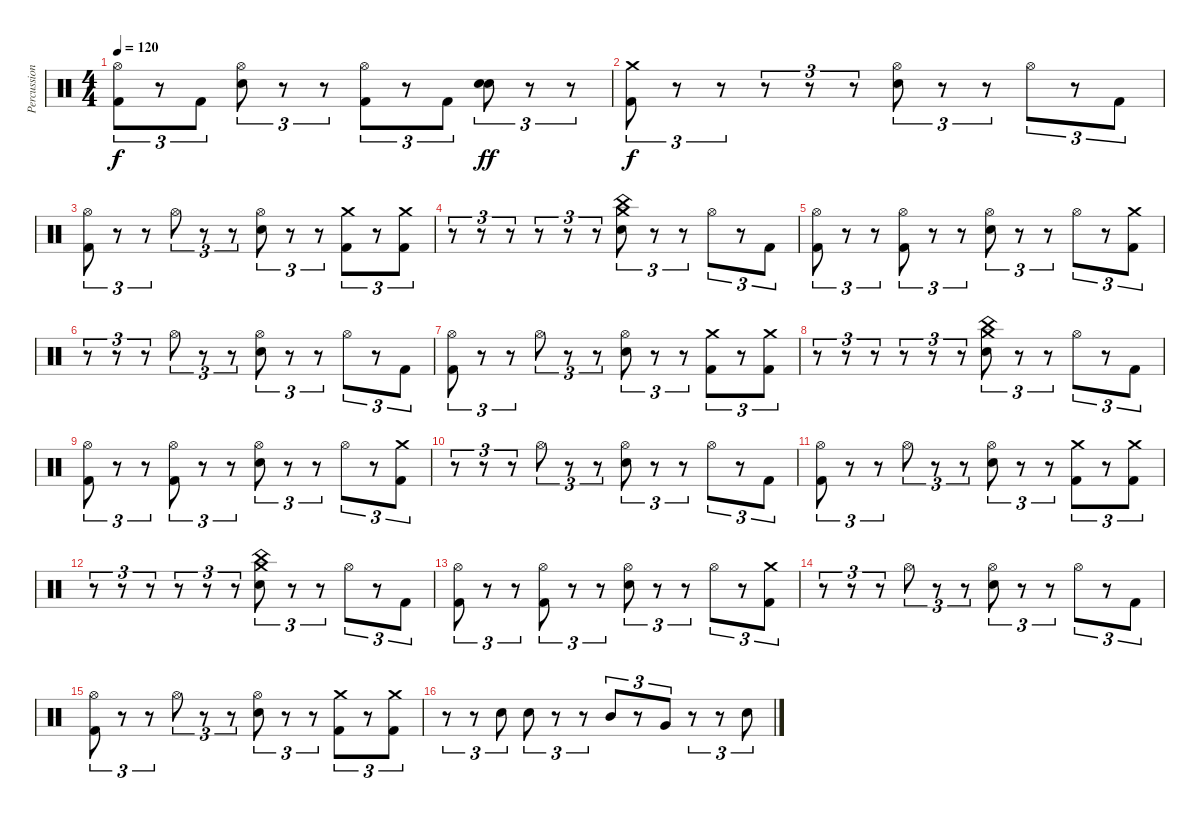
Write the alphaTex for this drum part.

\track ("Percussion" "Percussion") {instrument percussion}
\staff {score}
\articulation defaults
\ts (4 4)
\tempo 120
\clef neutral
\ks c
("Hi-Hat (open)" "Kick (hit) 2").8{tu (3 2) dy f} r.8{tu (3 2)} "Kick (hit) 2".8{tu (3 2)} ("Hi-Hat (open)" "Electric Snare (hit)").8{tu (3 2)} r.8{tu (3 2)} r.8{tu (3 2)} ("Hi-Hat (open)" "Kick (hit) 2").8{tu (3 2)} r.8{tu (3 2)} "Kick (hit) 2".8{tu (3 2)} ("Electric Snare (hit)" "Electric Snare (hit)").8{tu (3 2) bu 60 dy ff} r.8{tu (3 2)} r.8{tu (3 2)} |
("Crash medium (hit)" "Kick (hit) 2").8{tu (3 2) dy f} r.8{tu (3 2)} r.8{tu (3 2)} r.8{tu (3 2)} r.8{tu (3 2)} r.8{tu (3 2)} ("Hi-Hat (open)" "Electric Snare (hit)").8{tu (3 2)} r.8{tu (3 2)} r.8{tu (3 2)} "Hi-Hat (open)".8{tu (3 2)} r.8{tu (3 2)} "Kick (hit) 2".8{tu (3 2)} |
("Hi-Hat (open)" "Kick (hit) 2").8{tu (3 2)} r.8{tu (3 2)} r.8{tu (3 2)} "Hi-Hat (open)".8{tu (3 2)} r.8{tu (3 2)} r.8{tu (3 2)} ("Hi-Hat (open)" "Electric Snare (hit)").8{tu (3 2)} r.8{tu (3 2)} r.8{tu (3 2)} ("Crash medium (hit)" "Kick (hit) 2").8{tu (3 2)} r.8{tu (3 2)} ("Crash medium (hit)" "Kick (hit) 2").8{tu (3 2)} |
r.8{tu (3 2)} r.8{tu (3 2)} r.8{tu (3 2)} r.8{tu (3 2)} r.8{tu (3 2)} r.8{tu (3 2)} ("Crash medium (hit)" "China (hit)" "Electric Snare (hit)").8{tu (3 2)} r.8{tu (3 2)} r.8{tu (3 2)} "Hi-Hat (open)".8{tu (3 2)} r.8{tu (3 2)} "Kick (hit) 2".8{tu (3 2)} |
("Hi-Hat (open)" "Kick (hit) 2").8{tu (3 2)} r.8{tu (3 2)} r.8{tu (3 2)} ("Hi-Hat (open)" "Kick (hit) 2").8{tu (3 2)} r.8{tu (3 2)} r.8{tu (3 2)} ("Hi-Hat (open)" "Electric Snare (hit)").8{tu (3 2)} r.8{tu (3 2)} r.8{tu (3 2)} "Hi-Hat (open)".8{tu (3 2)} r.8{tu (3 2)} ("Crash medium (hit)" "Kick (hit) 2").8{tu (3 2)} |
r.8{tu (3 2)} r.8{tu (3 2)} r.8{tu (3 2)} "Hi-Hat (open)".8{tu (3 2)} r.8{tu (3 2)} r.8{tu (3 2)} ("Hi-Hat (open)" "Electric Snare (hit)").8{tu (3 2)} r.8{tu (3 2)} r.8{tu (3 2)} "Hi-Hat (open)".8{tu (3 2)} r.8{tu (3 2)} "Kick (hit) 2".8{tu (3 2)} |
("Hi-Hat (open)" "Kick (hit) 2").8{tu (3 2)} r.8{tu (3 2)} r.8{tu (3 2)} "Hi-Hat (open)".8{tu (3 2)} r.8{tu (3 2)} r.8{tu (3 2)} ("Hi-Hat (open)" "Electric Snare (hit)").8{tu (3 2)} r.8{tu (3 2)} r.8{tu (3 2)} ("Crash medium (hit)" "Kick (hit) 2").8{tu (3 2)} r.8{tu (3 2)} ("Crash medium (hit)" "Kick (hit) 2").8{tu (3 2)} |
r.8{tu (3 2)} r.8{tu (3 2)} r.8{tu (3 2)} r.8{tu (3 2)} r.8{tu (3 2)} r.8{tu (3 2)} ("Crash medium (hit)" "China (hit)" "Electric Snare (hit)").8{tu (3 2)} r.8{tu (3 2)} r.8{tu (3 2)} "Hi-Hat (open)".8{tu (3 2)} r.8{tu (3 2)} "Kick (hit) 2".8{tu (3 2)} |
("Hi-Hat (open)" "Kick (hit) 2").8{tu (3 2)} r.8{tu (3 2)} r.8{tu (3 2)} ("Hi-Hat (open)" "Kick (hit) 2").8{tu (3 2)} r.8{tu (3 2)} r.8{tu (3 2)} ("Hi-Hat (open)" "Electric Snare (hit)").8{tu (3 2)} r.8{tu (3 2)} r.8{tu (3 2)} "Hi-Hat (open)".8{tu (3 2)} r.8{tu (3 2)} ("Crash medium (hit)" "Kick (hit) 2").8{tu (3 2)} |
r.8{tu (3 2)} r.8{tu (3 2)} r.8{tu (3 2)} "Hi-Hat (open)".8{tu (3 2)} r.8{tu (3 2)} r.8{tu (3 2)} ("Hi-Hat (open)" "Electric Snare (hit)").8{tu (3 2)} r.8{tu (3 2)} r.8{tu (3 2)} "Hi-Hat (open)".8{tu (3 2)} r.8{tu (3 2)} "Kick (hit) 2".8{tu (3 2)} |
("Hi-Hat (open)" "Kick (hit) 2").8{tu (3 2)} r.8{tu (3 2)} r.8{tu (3 2)} "Hi-Hat (open)".8{tu (3 2)} r.8{tu (3 2)} r.8{tu (3 2)} ("Hi-Hat (open)" "Electric Snare (hit)").8{tu (3 2)} r.8{tu (3 2)} r.8{tu (3 2)} ("Crash medium (hit)" "Kick (hit) 2").8{tu (3 2)} r.8{tu (3 2)} ("Crash medium (hit)" "Kick (hit) 2").8{tu (3 2)} |
r.8{tu (3 2)} r.8{tu (3 2)} r.8{tu (3 2)} r.8{tu (3 2)} r.8{tu (3 2)} r.8{tu (3 2)} ("Crash medium (hit)" "China (hit)" "Electric Snare (hit)").8{tu (3 2)} r.8{tu (3 2)} r.8{tu (3 2)} "Hi-Hat (open)".8{tu (3 2)} r.8{tu (3 2)} "Kick (hit) 2".8{tu (3 2)} |
("Hi-Hat (open)" "Kick (hit) 2").8{tu (3 2)} r.8{tu (3 2)} r.8{tu (3 2)} ("Hi-Hat (open)" "Kick (hit) 2").8{tu (3 2)} r.8{tu (3 2)} r.8{tu (3 2)} ("Hi-Hat (open)" "Electric Snare (hit)").8{tu (3 2)} r.8{tu (3 2)} r.8{tu (3 2)} "Hi-Hat (open)".8{tu (3 2)} r.8{tu (3 2)} ("Crash medium (hit)" "Kick (hit) 2").8{tu (3 2)} |
r.8{tu (3 2)} r.8{tu (3 2)} r.8{tu (3 2)} "Hi-Hat (open)".8{tu (3 2)} r.8{tu (3 2)} r.8{tu (3 2)} ("Hi-Hat (open)" "Electric Snare (hit)").8{tu (3 2)} r.8{tu (3 2)} r.8{tu (3 2)} "Hi-Hat (open)".8{tu (3 2)} r.8{tu (3 2)} "Kick (hit) 2".8{tu (3 2)} |
("Hi-Hat (open)" "Kick (hit) 2").8{tu (3 2)} r.8{tu (3 2)} r.8{tu (3 2)} "Hi-Hat (open)".8{tu (3 2)} r.8{tu (3 2)} r.8{tu (3 2)} ("Hi-Hat (open)" "Electric Snare (hit)").8{tu (3 2)} r.8{tu (3 2)} r.8{tu (3 2)} ("Crash medium (hit)" "Kick (hit) 2").8{tu (3 2)} r.8{tu (3 2)} ("Crash medium (hit)" "Kick (hit) 2").8{tu (3 2)} |
r.8{tu (3 2)} r.8{tu (3 2)} "Electric Snare (hit)".8{tu (3 2)} "Electric Snare (hit)".8{tu (3 2)} r.8{tu (3 2)} r.8{tu (3 2)} "Mid Tom (hit)".8{tu (3 2)} r.8{tu (3 2)} "Very Low Tom (hit)".8{tu (3 2)} r.8{tu (3 2)} r.8{tu (3 2)} "Electric Snare (hit)".8{tu (3 2)}
